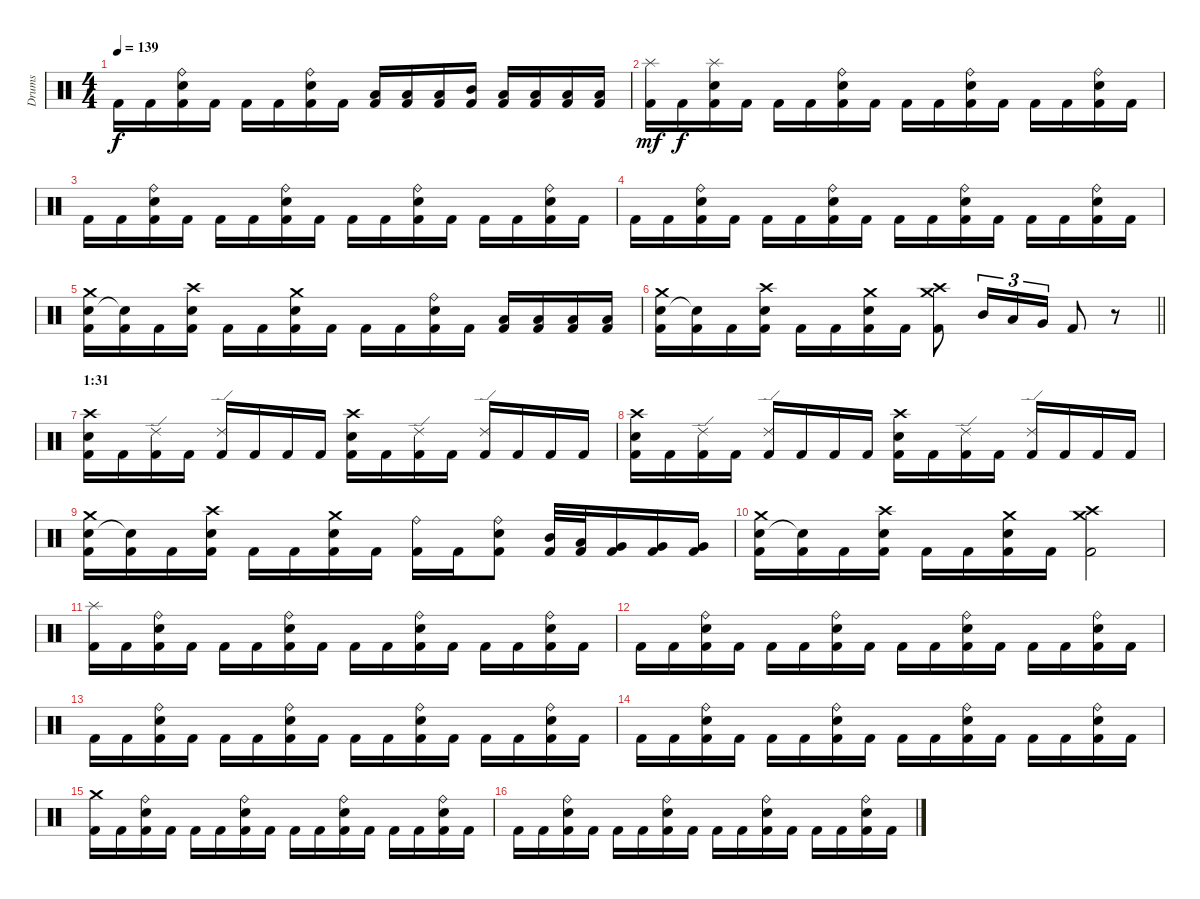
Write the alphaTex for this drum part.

\track ("Drums" "Drums") {instrument percussion}
\staff {score}
\articulation defaults
\ts (4 4)
\tempo 139
\clef neutral
\ks c "Kick (hit) 2".16{dy f} "Kick (hit) 2".16
("Electric Snare (hit)" "Ride (bell)" "Kick (hit) 2").16 "Kick (hit) 2".16 "Kick (hit) 2".16 "Kick (hit) 2".16 ("Electric Snare (hit)" "Ride (bell)" "Kick (hit) 2").16 "Kick (hit) 2".16 ("Low Tom (hit)" "Kick (hit) 2").16 ("Low Tom (hit)" "Kick (hit) 2").16 ("Low Tom (hit)" "Kick (hit) 2").16 ("Mid Tom (hit)" "Kick (hit) 2").16 ("Low Tom (hit)" "Kick (hit) 2").16 ("Low Floor Tom (hit)" "Kick (hit) 2").16 ("Low Floor Tom (hit)" "Kick (hit) 2").16 ("Low Floor Tom (hit)" "Kick (hit) 2").16 |
("Splash (hit)" "Kick (hit) 2").16{dy mf} "Kick (hit) 2".16{dy f} ("Electric Snare (hit)" "Splash (hit)" "Kick (hit) 2").16 "Kick (hit) 2".16 "Kick (hit) 2".16 "Kick (hit) 2".16 ("Electric Snare (hit)" "Ride (bell)" "Kick (hit) 2").16 "Kick (hit) 2".16 "Kick (hit) 2".16 "Kick (hit) 2".16 ("Electric Snare (hit)" "Ride (bell)" "Kick (hit) 2").16 "Kick (hit) 2".16 "Kick (hit) 2".16 "Kick (hit) 2".16 ("Electric Snare (hit)" "Ride (bell)" "Kick (hit) 2").16 "Kick (hit) 2".16 |
"Kick (hit) 2".16 "Kick (hit) 2".16 ("Electric Snare (hit)" "Ride (bell)" "Kick (hit) 2").16 "Kick (hit) 2".16 "Kick (hit) 2".16 "Kick (hit) 2".16 ("Electric Snare (hit)" "Ride (bell)" "Kick (hit) 2").16 "Kick (hit) 2".16 "Kick (hit) 2".16 "Kick (hit) 2".16 ("Electric Snare (hit)" "Ride (bell)" "Kick (hit) 2").16 "Kick (hit) 2".16 "Kick (hit) 2".16 "Kick (hit) 2".16 ("Electric Snare (hit)" "Ride (bell)" "Kick (hit) 2").16 "Kick (hit) 2".16 |
"Kick (hit) 2".16 "Kick (hit) 2".16 ("Electric Snare (hit)" "Ride (bell)" "Kick (hit) 2").16 "Kick (hit) 2".16 "Kick (hit) 2".16 "Kick (hit) 2".16 ("Electric Snare (hit)" "Ride (bell)" "Kick (hit) 2").16 "Kick (hit) 2".16 "Kick (hit) 2".16 "Kick (hit) 2".16 ("Electric Snare (hit)" "Ride (bell)" "Kick (hit) 2").16 "Kick (hit) 2".16 "Kick (hit) 2".16 "Kick (hit) 2".16 ("Electric Snare (hit)" "Ride (bell)" "Kick (hit) 2").16 "Kick (hit) 2".16 |
("Electric Snare (hit)" "Crash medium (hit)" "Kick (hit) 2").16 ("Snare (hit)"{t} "Kick (hit) 2").16 "Kick (hit) 2".16 ("Electric Snare (hit)" "Crash high (hit)" "Kick (hit) 2").16 "Kick (hit) 2".16 "Kick (hit) 2".16 ("Electric Snare (hit)" "Crash medium (hit)" "Kick (hit) 2").16 "Kick (hit) 2".16 "Kick (hit) 2".16 "Kick (hit) 2".16 ("Ride (bell)" "Electric Snare (hit)" "Kick (hit) 2").16 "Kick (hit) 2".16 ("Low Floor Tom (hit)" "Kick (hit) 2").16 ("Low Floor Tom (hit)" "Kick (hit) 2").16 ("Low Floor Tom (hit)" "Kick (hit) 2").16 ("Low Floor Tom (hit)" "Kick (hit) 2").16 |
\barLineRight lightlight
("Electric Snare (hit)" "Crash medium (hit)" "Kick (hit) 2").16 ("Snare (hit)"{t} "Kick (hit) 2").16 "Kick (hit) 2".16 ("Electric Snare (hit)" "Crash high (hit)" "Kick (hit) 2").16 "Kick (hit) 2".16 "Kick (hit) 2".16 ("Electric Snare (hit)" "Crash medium (hit)" "Kick (hit) 2").16 "Kick (hit) 2".16 ("Crash high (hit)" "Crash medium (hit)" "Kick (hit) 2").8 "Mid Tom (hit)".16{tu (3 2)} "Low Tom (hit)".16{tu (3 2)} "Very Low Tom (hit)".16{tu (3 2)} "Kick (hit) 2".8 r.8 |
\section ("" "1:31")
("Crash high (hit)" "Electric Snare (hit)" "Kick (hit) 2").16 "Kick (hit) 2".16 ("Ride (edge) 2" "Kick (hit) 2").16 "Kick (hit) 2".16 ("Ride (edge) 2" "Kick (hit) 2").16 "Kick (hit) 2".16 "Kick (hit) 2".16 "Kick (hit) 2".16 ("Crash high (hit)" "Electric Snare (hit)" "Kick (hit) 2").16 "Kick (hit) 2".16 ("Ride (edge) 2" "Kick (hit) 2").16 "Kick (hit) 2".16 ("Ride (edge) 2" "Kick (hit) 2").16 "Kick (hit) 2".16 "Kick (hit) 2".16 "Kick (hit) 2".16 |
("Crash high (hit)" "Electric Snare (hit)" "Kick (hit) 2").16 "Kick (hit) 2".16 ("Ride (edge) 2" "Kick (hit) 2").16 "Kick (hit) 2".16 ("Ride (edge) 2" "Kick (hit) 2").16 "Kick (hit) 2".16 "Kick (hit) 2".16 "Kick (hit) 2".16 ("Crash high (hit)" "Electric Snare (hit)" "Kick (hit) 2").16 "Kick (hit) 2".16 ("Ride (edge) 2" "Kick (hit) 2").16 "Kick (hit) 2".16 ("Ride (edge) 2" "Kick (hit) 2").16 "Kick (hit) 2".16 "Kick (hit) 2".16 "Kick (hit) 2".16 |
("Electric Snare (hit)" "Crash medium (hit)" "Kick (hit) 2").16 ("Snare (hit)"{t} "Kick (hit) 2").16 "Kick (hit) 2".16 ("Electric Snare (hit)" "Crash high (hit)" "Kick (hit) 2").16 "Kick (hit) 2".16 "Kick (hit) 2".16 ("Electric Snare (hit)" "Crash medium (hit)" "Kick (hit) 2").16 "Kick (hit) 2".16 ("Ride (bell)" "Kick (hit) 2").16 "Kick (hit) 2".16 ("Electric Snare (hit)" "Ride (bell)" "Kick (hit) 2").8 ("Mid Tom (hit)" "Kick (hit) 2").32 ("Low Tom (hit)" "Kick (hit) 2").32 ("Very Low Tom (hit)" "Kick (hit) 2").16 ("Very Low Tom (hit)" "Kick (hit) 2").16 ("Very Low Tom (hit)" "Kick (hit) 2").16 |
("Electric Snare (hit)" "Crash medium (hit)" "Kick (hit) 2").16 ("Snare (hit)"{t} "Kick (hit) 2").16 "Kick (hit) 2".16 ("Electric Snare (hit)" "Crash high (hit)" "Kick (hit) 2").16 "Kick (hit) 2".16 "Kick (hit) 2".16 ("Electric Snare (hit)" "Crash medium (hit)" "Kick (hit) 2").16 "Kick (hit) 2".16 ("Crash high (hit)" "Crash medium (hit)" "Kick (hit) 2").2 |
("Splash (hit)" "Kick (hit) 2").16 "Kick (hit) 2".16 ("Ride (bell)" "Electric Snare (hit)" "Kick (hit) 2").16 "Kick (hit) 2".16 "Kick (hit) 2".16 "Kick (hit) 2".16 ("Ride (bell)" "Electric Snare (hit)" "Kick (hit) 2").16 "Kick (hit) 2".16 "Kick (hit) 2".16 "Kick (hit) 2".16 ("Ride (bell)" "Electric Snare (hit)" "Kick (hit) 2").16 "Kick (hit) 2".16 "Kick (hit) 2".16 "Kick (hit) 2".16 ("Ride (bell)" "Electric Snare (hit)" "Kick (hit) 2").16 "Kick (hit) 2".16 |
"Kick (hit) 2".16 "Kick (hit) 2".16 ("Ride (bell)" "Electric Snare (hit)" "Kick (hit) 2").16 "Kick (hit) 2".16 "Kick (hit) 2".16 "Kick (hit) 2".16 ("Ride (bell)" "Electric Snare (hit)" "Kick (hit) 2").16 "Kick (hit) 2".16 "Kick (hit) 2".16 "Kick (hit) 2".16 ("Ride (bell)" "Electric Snare (hit)" "Kick (hit) 2").16 "Kick (hit) 2".16 "Kick (hit) 2".16 "Kick (hit) 2".16 ("Ride (bell)" "Electric Snare (hit)" "Kick (hit) 2").16 "Kick (hit) 2".16 |
"Kick (hit) 2".16 "Kick (hit) 2".16 ("Ride (bell)" "Electric Snare (hit)" "Kick (hit) 2").16 "Kick (hit) 2".16 "Kick (hit) 2".16 "Kick (hit) 2".16 ("Ride (bell)" "Electric Snare (hit)" "Kick (hit) 2").16 "Kick (hit) 2".16 "Kick (hit) 2".16 "Kick (hit) 2".16 ("Ride (bell)" "Electric Snare (hit)" "Kick (hit) 2").16 "Kick (hit) 2".16 "Kick (hit) 2".16 "Kick (hit) 2".16 ("Ride (bell)" "Electric Snare (hit)" "Kick (hit) 2").16 "Kick (hit) 2".16 |
"Kick (hit) 2".16 "Kick (hit) 2".16 ("Ride (bell)" "Electric Snare (hit)" "Kick (hit) 2").16 "Kick (hit) 2".16 "Kick (hit) 2".16 "Kick (hit) 2".16 ("Ride (bell)" "Electric Snare (hit)" "Kick (hit) 2").16 "Kick (hit) 2".16 "Kick (hit) 2".16 "Kick (hit) 2".16 ("Ride (bell)" "Electric Snare (hit)" "Kick (hit) 2").16 "Kick (hit) 2".16 "Kick (hit) 2".16 "Kick (hit) 2".16 ("Ride (bell)" "Electric Snare (hit)" "Kick (hit) 2").16 "Kick (hit) 2".16 |
("Crash medium (hit)" "Kick (hit) 2").16 "Kick (hit) 2".16 ("Ride (bell)" "Electric Snare (hit)" "Kick (hit) 2").16 "Kick (hit) 2".16 "Kick (hit) 2".16 "Kick (hit) 2".16 ("Ride (bell)" "Electric Snare (hit)" "Kick (hit) 2").16 "Kick (hit) 2".16 "Kick (hit) 2".16 "Kick (hit) 2".16 ("Ride (bell)" "Electric Snare (hit)" "Kick (hit) 2").16 "Kick (hit) 2".16 "Kick (hit) 2".16 "Kick (hit) 2".16 ("Ride (bell)" "Electric Snare (hit)" "Kick (hit) 2").16 "Kick (hit) 2".16 |
"Kick (hit) 2".16 "Kick (hit) 2".16 ("Ride (bell)" "Electric Snare (hit)" "Kick (hit) 2").16 "Kick (hit) 2".16 "Kick (hit) 2".16 "Kick (hit) 2".16 ("Ride (bell)" "Electric Snare (hit)" "Kick (hit) 2").16 "Kick (hit) 2".16 "Kick (hit) 2".16 "Kick (hit) 2".16 ("Ride (bell)" "Electric Snare (hit)" "Kick (hit) 2").16 "Kick (hit) 2".16 "Kick (hit) 2".16 "Kick (hit) 2".16 ("Ride (bell)" "Electric Snare (hit)" "Kick (hit) 2").16 "Kick (hit) 2".16
